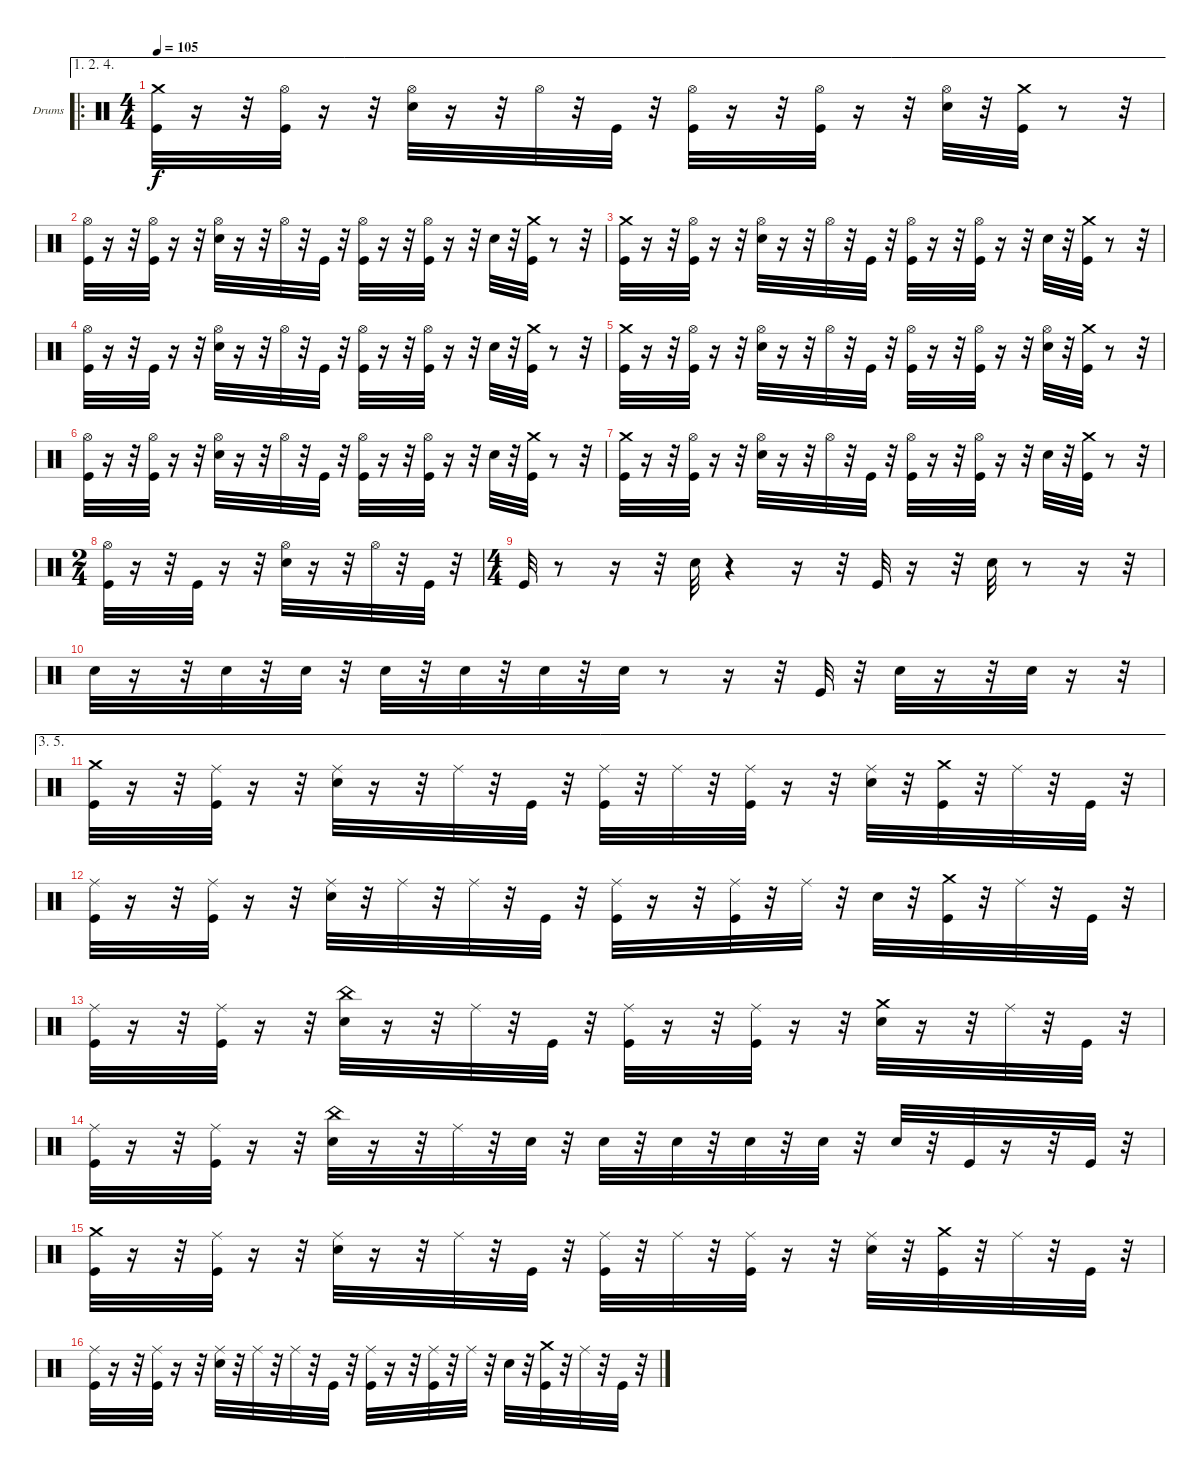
\defaultSystemsLayout 4
\bracketExtendMode groupsimilarinstruments
\firstSystemTrackNameOrientation horizontal
\otherSystemsTrackNameOrientation horizontal
\track ("Drumkit" "Drums") {instrument percussion}
\staff {score}
\articulation defaults
\ae (1 2 4)
\ro
\ts (4 4)
\tempo 105
\clef neutral
\ks c
("Crash medium (hit)" "Kick (hit)").32{dy f} r.16 r.32 ("Hi-Hat (open)" "Kick (hit)").32 r.16 r.32 ("Hi-Hat (open)" "Snare (hit) 2").32 r.16 r.32 "Hi-Hat (open)".32 r.32 "Kick (hit)".32 r.32 ("Kick (hit)" "Hi-Hat (open)").32 r.16 r.32 ("Kick (hit)" "Hi-Hat (open)").32 r.16 r.32 ("Hi-Hat (open)" "Snare (hit) 2").32 r.32 ("Kick (hit)" "Crash medium (hit)").32 r.8 r.32 |
("Hi-Hat (open)" "Kick (hit)").32 r.16 r.32 ("Kick (hit)" "Hi-Hat (open)").32 r.16 r.32 ("Hi-Hat (open)" "Snare (hit) 2").32 r.16 r.32 "Hi-Hat (open)".32 r.32 "Kick (hit)".32 r.32 ("Kick (hit)" "Hi-Hat (open)").32 r.16 r.32 ("Kick (hit)" "Hi-Hat (open)").32 r.16 r.32 "Snare (hit) 2".32 r.32 ("Kick (hit)" "Crash medium (hit)").32 r.8 r.32 |
("Crash medium (hit)" "Kick (hit)").32 r.16 r.32 ("Kick (hit)" "Hi-Hat (open)").32 r.16 r.32 ("Snare (hit) 2" "Hi-Hat (open)").32 r.16 r.32 "Hi-Hat (open)".32 r.32 "Kick (hit)".32 r.32 ("Kick (hit)" "Hi-Hat (open)").32 r.16 r.32 ("Hi-Hat (open)" "Kick (hit)").32 r.16 r.32 "Snare (hit) 2".32 r.32 ("Crash medium (hit)" "Kick (hit)").32 r.8 r.32 |
("Kick (hit)" "Hi-Hat (open)").32 r.16 r.32 "Kick (hit)".32 r.16 r.32 ("Snare (hit) 2" "Hi-Hat (open)").32 r.16 r.32 "Hi-Hat (open)".32 r.32 "Kick (hit)".32 r.32 ("Hi-Hat (open)" "Kick (hit)").32 r.16 r.32 ("Kick (hit)" "Hi-Hat (open)").32 r.16 r.32 "Snare (hit) 2".32 r.32 ("Kick (hit)" "Crash medium (hit)").32 r.8 r.32 |
("Crash medium (hit)" "Kick (hit)").32 r.16 r.32 ("Hi-Hat (open)" "Kick (hit)").32 r.16 r.32 ("Hi-Hat (open)" "Snare (hit) 2").32 r.16 r.32 "Hi-Hat (open)".32 r.32 "Kick (hit)".32 r.32 ("Kick (hit)" "Hi-Hat (open)").32 r.16 r.32 ("Kick (hit)" "Hi-Hat (open)").32 r.16 r.32 ("Hi-Hat (open)" "Snare (hit) 2").32 r.32 ("Kick (hit)" "Crash medium (hit)").32 r.8 r.32 |
("Hi-Hat (open)" "Kick (hit)").32 r.16 r.32 ("Kick (hit)" "Hi-Hat (open)").32 r.16 r.32 ("Hi-Hat (open)" "Snare (hit) 2").32 r.16 r.32 "Hi-Hat (open)".32 r.32 "Kick (hit)".32 r.32 ("Kick (hit)" "Hi-Hat (open)").32 r.16 r.32 ("Kick (hit)" "Hi-Hat (open)").32 r.16 r.32 "Snare (hit) 2".32 r.32 ("Kick (hit)" "Crash medium (hit)").32 r.8 r.32 |
("Crash medium (hit)" "Kick (hit)").32 r.16 r.32 ("Kick (hit)" "Hi-Hat (open)").32 r.16 r.32 ("Snare (hit) 2" "Hi-Hat (open)").32 r.16 r.32 "Hi-Hat (open)".32 r.32 "Kick (hit)".32 r.32 ("Kick (hit)" "Hi-Hat (open)").32 r.16 r.32 ("Hi-Hat (open)" "Kick (hit)").32 r.16 r.32 "Snare (hit) 2".32 r.32 ("Crash medium (hit)" "Kick (hit)").32 r.8 r.32 |
\ts (2 4)
("Kick (hit)" "Hi-Hat (open)").32 r.16 r.32 "Kick (hit)".32 r.16 r.32 ("Snare (hit) 2" "Hi-Hat (open)").32 r.16 r.32 "Hi-Hat (open)".32 r.32 "Kick (hit)".32 r.32 |
\ts (4 4)
"Kick (hit)".32 r.8 r.16 r.32 "Snare (hit) 2".32 r.4 r.16 r.32 "Kick (hit)".32 r.16 r.32 "Snare (hit) 2".32 r.8 r.16 r.32 |
"Snare (hit) 2".32 r.16 r.32 "Snare (hit) 2".32 r.32 "Snare (hit) 2".32 r.32 "Snare (hit) 2".32 r.32 "Snare (hit) 2".32 r.32 "Snare (hit) 2".32 r.32 "Snare (hit) 2".32 r.8 r.16 r.32 "Kick (hit)".32 r.32 "Snare (hit) 2".32 r.16 r.32 "Snare (hit) 2".32 r.16 r.32 |
\ae (3 5)
("Crash medium (hit)" "Kick (hit)").32 r.16 r.32 ("Kick (hit)" "Ride (middle)").32 r.16 r.32 ("Ride (middle)" "Snare (hit) 2").32 r.16 r.32 "Ride (middle)".32 r.32 "Kick (hit)".32 r.32 ("Kick (hit)" "Ride (middle)").32 r.32 "Ride (middle)".32 r.32 ("Ride (middle)" "Kick (hit)").32 r.16 r.32 ("Snare (hit) 2" "Ride (middle)").32 r.32 ("Crash medium (hit)" "Kick (hit)").32 r.32 "Ride (middle)".32 r.32 "Kick (hit)".32 r.32 |
("Kick (hit)" "Ride (middle)").32 r.16 r.32 ("Kick (hit)" "Ride (middle)").32 r.16 r.32 ("Snare (hit) 2" "Ride (middle)").32 r.32 "Ride (middle)".32 r.32 "Ride (middle)".32 r.32 "Kick (hit)".32 r.32 ("Ride (middle)" "Kick (hit)").32 r.16 r.32 ("Kick (hit)" "Ride (middle)").32 r.32 "Ride (middle)".32 r.32 "Snare (hit) 2".32 r.32 ("Kick (hit)" "Crash medium (hit)").32 r.32 "Ride (middle)".32 r.32 "Kick (hit)".32 r.32 |
("Kick (hit)" "Ride (middle)").32 r.16 r.32 ("Kick (hit)" "Ride (middle)").32 r.16 r.32 ("China (hit)" "Snare (hit) 2").32 r.16 r.32 "Ride (middle)".32 r.32 "Kick (hit)".32 r.32 ("Kick (hit)" "Ride (middle)").32 r.16 r.32 ("Ride (middle)" "Kick (hit)").32 r.16 r.32 ("Snare (hit) 2" "Crash medium (hit)").32 r.16 r.32 "Ride (middle)".32 r.32 "Kick (hit)".32 r.32 |
("Ride (middle)" "Kick (hit)").32 r.16 r.32 ("Kick (hit)" "Ride (middle)").32 r.16 r.32 ("Snare (hit) 2" "China (hit)").32 r.16 r.32 "Ride (middle)".32 r.32 "Snare (hit) 2".32 r.32 "Snare (hit) 2".32 r.32 "Snare (hit) 2".32 r.32 "Snare (hit) 2".32 r.32 "Snare (hit) 2".32 r.32 "Snare (hit) 2".32 r.32 "Kick (hit)".32 r.16 r.32 "Kick (hit)".32 r.32 |
("Crash medium (hit)" "Kick (hit)").32 r.16 r.32 ("Kick (hit)" "Ride (middle)").32 r.16 r.32 ("Ride (middle)" "Snare (hit) 2").32 r.16 r.32 "Ride (middle)".32 r.32 "Kick (hit)".32 r.32 ("Kick (hit)" "Ride (middle)").32 r.32 "Ride (middle)".32 r.32 ("Ride (middle)" "Kick (hit)").32 r.16 r.32 ("Snare (hit) 2" "Ride (middle)").32 r.32 ("Crash medium (hit)" "Kick (hit)").32 r.32 "Ride (middle)".32 r.32 "Kick (hit)".32 r.32 |
("Kick (hit)" "Ride (middle)").32 r.16 r.32 ("Kick (hit)" "Ride (middle)").32 r.16 r.32 ("Snare (hit) 2" "Ride (middle)").32 r.32 "Ride (middle)".32 r.32 "Ride (middle)".32 r.32 "Kick (hit)".32 r.32 ("Ride (middle)" "Kick (hit)").32 r.16 r.32 ("Kick (hit)" "Ride (middle)").32 r.32 "Ride (middle)".32 r.32 "Snare (hit) 2".32 r.32 ("Kick (hit)" "Crash medium (hit)").32 r.32 "Ride (middle)".32 r.32 "Kick (hit)".32 r.32
